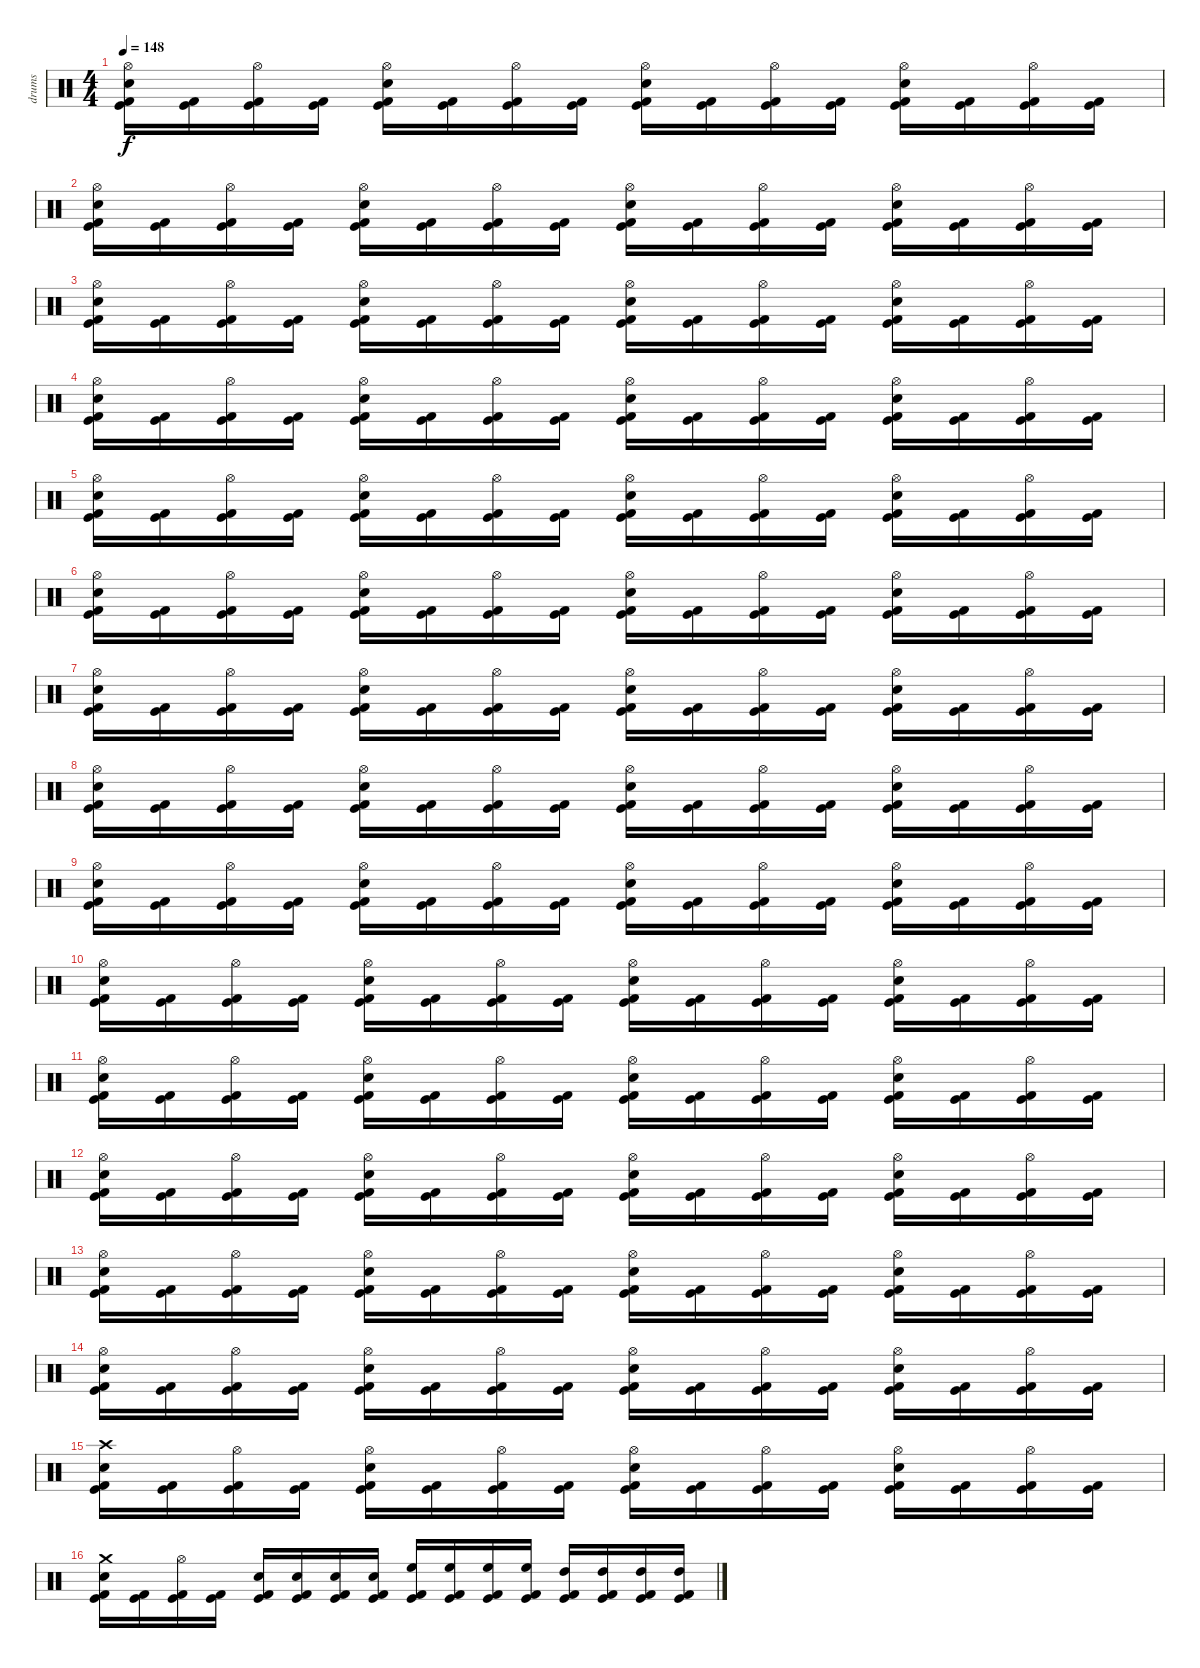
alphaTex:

\track ("drums" "drums") {instrument percussion}
\staff {score}
\articulation defaults
\ts (4 4)
\tempo 148
\clef neutral
\ks c
("Kick (hit)" "Kick (hit) 2" "Snare (hit) 2" "Hi-Hat (open)").16{dy f} ("Kick (hit)" "Kick (hit) 2").16 ("Kick (hit)" "Kick (hit) 2" "Hi-Hat (open)").16 ("Kick (hit)" "Kick (hit) 2").16 ("Kick (hit)" "Kick (hit) 2" "Snare (hit) 2" "Hi-Hat (open)").16 ("Kick (hit)" "Kick (hit) 2").16 ("Kick (hit)" "Kick (hit) 2" "Hi-Hat (open)").16 ("Kick (hit)" "Kick (hit) 2").16 ("Kick (hit)" "Kick (hit) 2" "Snare (hit) 2" "Hi-Hat (open)").16 ("Kick (hit)" "Kick (hit) 2").16 ("Kick (hit)" "Kick (hit) 2" "Hi-Hat (open)").16 ("Kick (hit)" "Kick (hit) 2").16 ("Kick (hit)" "Kick (hit) 2" "Snare (hit) 2" "Hi-Hat (open)").16 ("Kick (hit)" "Kick (hit) 2").16 ("Kick (hit)" "Kick (hit) 2" "Hi-Hat (open)").16 ("Kick (hit)" "Kick (hit) 2").16 |
("Kick (hit)" "Kick (hit) 2" "Snare (hit) 2" "Hi-Hat (open)").16 ("Kick (hit)" "Kick (hit) 2").16 ("Kick (hit)" "Kick (hit) 2" "Hi-Hat (open)").16 ("Kick (hit)" "Kick (hit) 2").16 ("Kick (hit)" "Kick (hit) 2" "Snare (hit) 2" "Hi-Hat (open)").16 ("Kick (hit)" "Kick (hit) 2").16 ("Kick (hit)" "Kick (hit) 2" "Hi-Hat (open)").16 ("Kick (hit)" "Kick (hit) 2").16 ("Kick (hit)" "Kick (hit) 2" "Snare (hit) 2" "Hi-Hat (open)").16 ("Kick (hit)" "Kick (hit) 2").16 ("Kick (hit)" "Kick (hit) 2" "Hi-Hat (open)").16 ("Kick (hit)" "Kick (hit) 2").16 ("Kick (hit)" "Kick (hit) 2" "Snare (hit) 2" "Hi-Hat (open)").16 ("Kick (hit)" "Kick (hit) 2").16 ("Kick (hit)" "Kick (hit) 2" "Hi-Hat (open)").16 ("Kick (hit)" "Kick (hit) 2").16 |
("Kick (hit)" "Kick (hit) 2" "Snare (hit) 2" "Hi-Hat (open)").16 ("Kick (hit)" "Kick (hit) 2").16 ("Kick (hit)" "Kick (hit) 2" "Hi-Hat (open)").16 ("Kick (hit)" "Kick (hit) 2").16 ("Kick (hit)" "Kick (hit) 2" "Snare (hit) 2" "Hi-Hat (open)").16 ("Kick (hit)" "Kick (hit) 2").16 ("Kick (hit)" "Kick (hit) 2" "Hi-Hat (open)").16 ("Kick (hit)" "Kick (hit) 2").16 ("Kick (hit)" "Kick (hit) 2" "Snare (hit) 2" "Hi-Hat (open)").16 ("Kick (hit)" "Kick (hit) 2").16 ("Kick (hit)" "Kick (hit) 2" "Hi-Hat (open)").16 ("Kick (hit)" "Kick (hit) 2").16 ("Kick (hit)" "Kick (hit) 2" "Snare (hit) 2" "Hi-Hat (open)").16 ("Kick (hit)" "Kick (hit) 2").16 ("Kick (hit)" "Kick (hit) 2" "Hi-Hat (open)").16 ("Kick (hit)" "Kick (hit) 2").16 |
("Kick (hit)" "Kick (hit) 2" "Snare (hit) 2" "Hi-Hat (open)").16 ("Kick (hit)" "Kick (hit) 2").16 ("Kick (hit)" "Kick (hit) 2" "Hi-Hat (open)").16 ("Kick (hit)" "Kick (hit) 2").16 ("Kick (hit)" "Kick (hit) 2" "Snare (hit) 2" "Hi-Hat (open)").16 ("Kick (hit)" "Kick (hit) 2").16 ("Kick (hit)" "Kick (hit) 2" "Hi-Hat (open)").16 ("Kick (hit)" "Kick (hit) 2").16 ("Kick (hit)" "Kick (hit) 2" "Snare (hit) 2" "Hi-Hat (open)").16 ("Kick (hit)" "Kick (hit) 2").16 ("Kick (hit)" "Kick (hit) 2" "Hi-Hat (open)").16 ("Kick (hit)" "Kick (hit) 2").16 ("Kick (hit)" "Kick (hit) 2" "Snare (hit) 2" "Hi-Hat (open)").16 ("Kick (hit)" "Kick (hit) 2").16 ("Kick (hit)" "Kick (hit) 2" "Hi-Hat (open)").16 ("Kick (hit)" "Kick (hit) 2").16 |
("Kick (hit)" "Kick (hit) 2" "Snare (hit) 2" "Hi-Hat (open)").16 ("Kick (hit)" "Kick (hit) 2").16 ("Kick (hit)" "Kick (hit) 2" "Hi-Hat (open)").16 ("Kick (hit)" "Kick (hit) 2").16 ("Kick (hit)" "Kick (hit) 2" "Snare (hit) 2" "Hi-Hat (open)").16 ("Kick (hit)" "Kick (hit) 2").16 ("Kick (hit)" "Kick (hit) 2" "Hi-Hat (open)").16 ("Kick (hit)" "Kick (hit) 2").16 ("Kick (hit)" "Kick (hit) 2" "Snare (hit) 2" "Hi-Hat (open)").16 ("Kick (hit)" "Kick (hit) 2").16 ("Kick (hit)" "Kick (hit) 2" "Hi-Hat (open)").16 ("Kick (hit)" "Kick (hit) 2").16 ("Kick (hit)" "Kick (hit) 2" "Snare (hit) 2" "Hi-Hat (open)").16 ("Kick (hit)" "Kick (hit) 2").16 ("Kick (hit)" "Kick (hit) 2" "Hi-Hat (open)").16 ("Kick (hit)" "Kick (hit) 2").16 |
("Kick (hit)" "Kick (hit) 2" "Snare (hit) 2" "Hi-Hat (open)").16 ("Kick (hit)" "Kick (hit) 2").16 ("Kick (hit)" "Kick (hit) 2" "Hi-Hat (open)").16 ("Kick (hit)" "Kick (hit) 2").16 ("Kick (hit)" "Kick (hit) 2" "Snare (hit) 2" "Hi-Hat (open)").16 ("Kick (hit)" "Kick (hit) 2").16 ("Kick (hit)" "Kick (hit) 2" "Hi-Hat (open)").16 ("Kick (hit)" "Kick (hit) 2").16 ("Kick (hit)" "Kick (hit) 2" "Snare (hit) 2" "Hi-Hat (open)").16 ("Kick (hit)" "Kick (hit) 2").16 ("Kick (hit)" "Kick (hit) 2" "Hi-Hat (open)").16 ("Kick (hit)" "Kick (hit) 2").16 ("Kick (hit)" "Kick (hit) 2" "Snare (hit) 2" "Hi-Hat (open)").16 ("Kick (hit)" "Kick (hit) 2").16 ("Kick (hit)" "Kick (hit) 2" "Hi-Hat (open)").16 ("Kick (hit)" "Kick (hit) 2").16 |
("Kick (hit)" "Kick (hit) 2" "Snare (hit) 2" "Hi-Hat (open)").16 ("Kick (hit)" "Kick (hit) 2").16 ("Kick (hit)" "Kick (hit) 2" "Hi-Hat (open)").16 ("Kick (hit)" "Kick (hit) 2").16 ("Kick (hit)" "Kick (hit) 2" "Snare (hit) 2" "Hi-Hat (open)").16 ("Kick (hit)" "Kick (hit) 2").16 ("Kick (hit)" "Kick (hit) 2" "Hi-Hat (open)").16 ("Kick (hit)" "Kick (hit) 2").16 ("Kick (hit)" "Kick (hit) 2" "Snare (hit) 2" "Hi-Hat (open)").16 ("Kick (hit)" "Kick (hit) 2").16 ("Kick (hit)" "Kick (hit) 2" "Hi-Hat (open)").16 ("Kick (hit)" "Kick (hit) 2").16 ("Kick (hit)" "Kick (hit) 2" "Snare (hit) 2" "Hi-Hat (open)").16 ("Kick (hit)" "Kick (hit) 2").16 ("Kick (hit)" "Kick (hit) 2" "Hi-Hat (open)").16 ("Kick (hit)" "Kick (hit) 2").16 |
("Kick (hit)" "Kick (hit) 2" "Snare (hit) 2" "Hi-Hat (open)").16 ("Kick (hit)" "Kick (hit) 2").16 ("Kick (hit)" "Kick (hit) 2" "Hi-Hat (open)").16 ("Kick (hit)" "Kick (hit) 2").16 ("Kick (hit)" "Kick (hit) 2" "Snare (hit) 2" "Hi-Hat (open)").16 ("Kick (hit)" "Kick (hit) 2").16 ("Kick (hit)" "Kick (hit) 2" "Hi-Hat (open)").16 ("Kick (hit)" "Kick (hit) 2").16 ("Kick (hit)" "Kick (hit) 2" "Snare (hit) 2" "Hi-Hat (open)").16 ("Kick (hit)" "Kick (hit) 2").16 ("Kick (hit)" "Kick (hit) 2" "Hi-Hat (open)").16 ("Kick (hit)" "Kick (hit) 2").16 ("Kick (hit)" "Kick (hit) 2" "Snare (hit) 2" "Hi-Hat (open)").16 ("Kick (hit)" "Kick (hit) 2").16 ("Kick (hit)" "Kick (hit) 2" "Hi-Hat (open)").16 ("Kick (hit)" "Kick (hit) 2").16 |
("Kick (hit)" "Kick (hit) 2" "Snare (hit) 2" "Hi-Hat (open)").16 ("Kick (hit)" "Kick (hit) 2").16 ("Kick (hit)" "Kick (hit) 2" "Hi-Hat (open)").16 ("Kick (hit)" "Kick (hit) 2").16 ("Kick (hit)" "Kick (hit) 2" "Snare (hit) 2" "Hi-Hat (open)").16 ("Kick (hit)" "Kick (hit) 2").16 ("Kick (hit)" "Kick (hit) 2" "Hi-Hat (open)").16 ("Kick (hit)" "Kick (hit) 2").16 ("Kick (hit)" "Kick (hit) 2" "Snare (hit) 2" "Hi-Hat (open)").16 ("Kick (hit)" "Kick (hit) 2").16 ("Kick (hit)" "Kick (hit) 2" "Hi-Hat (open)").16 ("Kick (hit)" "Kick (hit) 2").16 ("Kick (hit)" "Kick (hit) 2" "Snare (hit) 2" "Hi-Hat (open)").16 ("Kick (hit)" "Kick (hit) 2").16 ("Kick (hit)" "Kick (hit) 2" "Hi-Hat (open)").16 ("Kick (hit)" "Kick (hit) 2").16 |
("Kick (hit)" "Kick (hit) 2" "Snare (hit) 2" "Hi-Hat (open)").16 ("Kick (hit)" "Kick (hit) 2").16 ("Kick (hit)" "Kick (hit) 2" "Hi-Hat (open)").16 ("Kick (hit)" "Kick (hit) 2").16 ("Kick (hit)" "Kick (hit) 2" "Snare (hit) 2" "Hi-Hat (open)").16 ("Kick (hit)" "Kick (hit) 2").16 ("Kick (hit)" "Kick (hit) 2" "Hi-Hat (open)").16 ("Kick (hit)" "Kick (hit) 2").16 ("Kick (hit)" "Kick (hit) 2" "Snare (hit) 2" "Hi-Hat (open)").16 ("Kick (hit)" "Kick (hit) 2").16 ("Kick (hit)" "Kick (hit) 2" "Hi-Hat (open)").16 ("Kick (hit)" "Kick (hit) 2").16 ("Kick (hit)" "Kick (hit) 2" "Snare (hit) 2" "Hi-Hat (open)").16 ("Kick (hit)" "Kick (hit) 2").16 ("Kick (hit)" "Kick (hit) 2" "Hi-Hat (open)").16 ("Kick (hit)" "Kick (hit) 2").16 |
("Kick (hit)" "Kick (hit) 2" "Snare (hit) 2" "Hi-Hat (open)").16 ("Kick (hit)" "Kick (hit) 2").16 ("Kick (hit)" "Kick (hit) 2" "Hi-Hat (open)").16 ("Kick (hit)" "Kick (hit) 2").16 ("Kick (hit)" "Kick (hit) 2" "Snare (hit) 2" "Hi-Hat (open)").16 ("Kick (hit)" "Kick (hit) 2").16 ("Kick (hit)" "Kick (hit) 2" "Hi-Hat (open)").16 ("Kick (hit)" "Kick (hit) 2").16 ("Kick (hit)" "Kick (hit) 2" "Snare (hit) 2" "Hi-Hat (open)").16 ("Kick (hit)" "Kick (hit) 2").16 ("Kick (hit)" "Kick (hit) 2" "Hi-Hat (open)").16 ("Kick (hit)" "Kick (hit) 2").16 ("Kick (hit)" "Kick (hit) 2" "Snare (hit) 2" "Hi-Hat (open)").16 ("Kick (hit)" "Kick (hit) 2").16 ("Kick (hit)" "Kick (hit) 2" "Hi-Hat (open)").16 ("Kick (hit)" "Kick (hit) 2").16 |
("Kick (hit)" "Kick (hit) 2" "Snare (hit) 2" "Hi-Hat (open)").16 ("Kick (hit)" "Kick (hit) 2").16 ("Kick (hit)" "Kick (hit) 2" "Hi-Hat (open)").16 ("Kick (hit)" "Kick (hit) 2").16 ("Kick (hit)" "Kick (hit) 2" "Snare (hit) 2" "Hi-Hat (open)").16 ("Kick (hit)" "Kick (hit) 2").16 ("Kick (hit)" "Kick (hit) 2" "Hi-Hat (open)").16 ("Kick (hit)" "Kick (hit) 2").16 ("Kick (hit)" "Kick (hit) 2" "Snare (hit) 2" "Hi-Hat (open)").16 ("Kick (hit)" "Kick (hit) 2").16 ("Kick (hit)" "Kick (hit) 2" "Hi-Hat (open)").16 ("Kick (hit)" "Kick (hit) 2").16 ("Kick (hit)" "Kick (hit) 2" "Snare (hit) 2" "Hi-Hat (open)").16 ("Kick (hit)" "Kick (hit) 2").16 ("Kick (hit)" "Kick (hit) 2" "Hi-Hat (open)").16 ("Kick (hit)" "Kick (hit) 2").16 |
("Kick (hit)" "Kick (hit) 2" "Snare (hit) 2" "Hi-Hat (open)").16 ("Kick (hit)" "Kick (hit) 2").16 ("Kick (hit)" "Kick (hit) 2" "Hi-Hat (open)").16 ("Kick (hit)" "Kick (hit) 2").16 ("Kick (hit)" "Kick (hit) 2" "Snare (hit) 2" "Hi-Hat (open)").16 ("Kick (hit)" "Kick (hit) 2").16 ("Kick (hit)" "Kick (hit) 2" "Hi-Hat (open)").16 ("Kick (hit)" "Kick (hit) 2").16 ("Kick (hit)" "Kick (hit) 2" "Snare (hit) 2" "Hi-Hat (open)").16 ("Kick (hit)" "Kick (hit) 2").16 ("Kick (hit)" "Kick (hit) 2" "Hi-Hat (open)").16 ("Kick (hit)" "Kick (hit) 2").16 ("Kick (hit)" "Kick (hit) 2" "Snare (hit) 2" "Hi-Hat (open)").16 ("Kick (hit)" "Kick (hit) 2").16 ("Kick (hit)" "Kick (hit) 2" "Hi-Hat (open)").16 ("Kick (hit)" "Kick (hit) 2").16 |
("Kick (hit)" "Kick (hit) 2" "Snare (hit) 2" "Hi-Hat (open)").16 ("Kick (hit)" "Kick (hit) 2").16 ("Kick (hit)" "Kick (hit) 2" "Hi-Hat (open)").16 ("Kick (hit)" "Kick (hit) 2").16 ("Kick (hit)" "Kick (hit) 2" "Snare (hit) 2" "Hi-Hat (open)").16 ("Kick (hit)" "Kick (hit) 2").16 ("Kick (hit)" "Kick (hit) 2" "Hi-Hat (open)").16 ("Kick (hit)" "Kick (hit) 2").16 ("Kick (hit)" "Kick (hit) 2" "Snare (hit) 2" "Hi-Hat (open)").16 ("Kick (hit)" "Kick (hit) 2").16 ("Kick (hit)" "Kick (hit) 2" "Hi-Hat (open)").16 ("Kick (hit)" "Kick (hit) 2").16 ("Kick (hit)" "Kick (hit) 2" "Snare (hit) 2" "Hi-Hat (open)").16 ("Kick (hit)" "Kick (hit) 2").16 ("Kick (hit)" "Kick (hit) 2" "Hi-Hat (open)").16 ("Kick (hit)" "Kick (hit) 2").16 |
("Kick (hit)" "Kick (hit) 2" "Crash high (hit)" "Snare (hit) 2").16 ("Kick (hit)" "Kick (hit) 2").16 ("Kick (hit)" "Kick (hit) 2" "Hi-Hat (open)").16 ("Kick (hit)" "Kick (hit) 2").16 ("Kick (hit)" "Kick (hit) 2" "Snare (hit) 2" "Hi-Hat (open)").16 ("Kick (hit)" "Kick (hit) 2").16 ("Kick (hit)" "Kick (hit) 2" "Hi-Hat (open)").16 ("Kick (hit)" "Kick (hit) 2").16 ("Kick (hit)" "Kick (hit) 2" "Snare (hit) 2" "Hi-Hat (open)").16 ("Kick (hit)" "Kick (hit) 2").16 ("Kick (hit)" "Kick (hit) 2" "Hi-Hat (open)").16 ("Kick (hit)" "Kick (hit) 2").16 ("Kick (hit)" "Kick (hit) 2" "Snare (hit) 2" "Hi-Hat (open)").16 ("Kick (hit)" "Kick (hit) 2").16 ("Kick (hit)" "Kick (hit) 2" "Hi-Hat (open)").16 ("Kick (hit)" "Kick (hit) 2").16 |
("Kick (hit)" "Kick (hit) 2" "Snare (hit) 2" "Crash medium (hit)").16 ("Kick (hit)" "Kick (hit) 2").16 ("Kick (hit)" "Kick (hit) 2" "Hi-Hat (open)").16 ("Kick (hit)" "Kick (hit) 2").16 ("Kick (hit)" "Kick (hit) 2" "Snare (hit) 2").16 ("Kick (hit)" "Kick (hit) 2" "Snare (hit) 2").16 ("Kick (hit)" "Kick (hit) 2" "Snare (hit) 2").16 ("Kick (hit)" "Kick (hit) 2" "Snare (hit) 2").16 ("Kick (hit)" "Kick (hit) 2" "High Floor Tom (hit)").16 ("Kick (hit)" "Kick (hit) 2" "High Floor Tom (hit)").16 ("Kick (hit)" "Kick (hit) 2" "High Floor Tom (hit)").16 ("Kick (hit)" "Kick (hit) 2" "High Floor Tom (hit)").16 ("Kick (hit)" "Kick (hit) 2" "High Tom (hit)").16 ("Kick (hit)" "Kick (hit) 2" "High Tom (hit)").16 ("Kick (hit)" "Kick (hit) 2" "High Tom (hit)").16 ("Kick (hit)" "Kick (hit) 2" "High Tom (hit)").16
